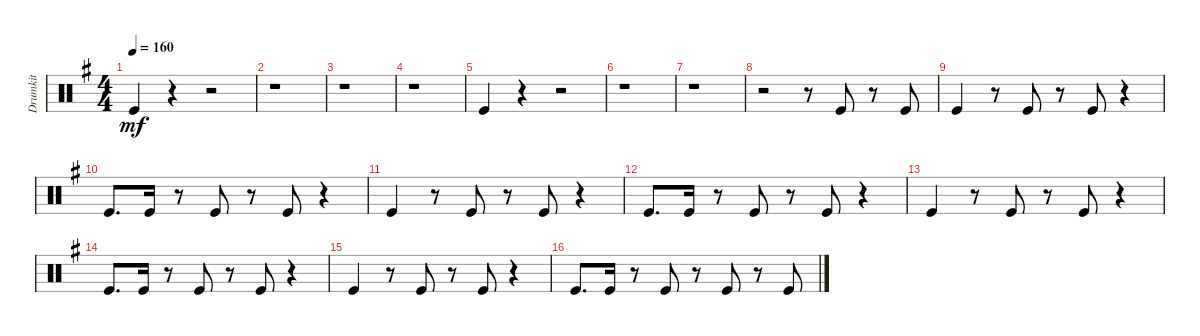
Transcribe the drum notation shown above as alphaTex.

\track ("Drumkit" "Drumkit") {instrument percussion}
\staff {score}
\articulation defaults
\ts (4 4)
\tempo 160
\clef neutral
\ks g "Kick (hit)".4{dy mf}
r.4 r.2 |
r.1 |
r.1 |
r.1 |
"Kick (hit)".4 r.4 r.2 |
r.1 |
r.1 |
r.2 r.8 "Kick (hit)".8 r.8 "Kick (hit)".8 |
"Kick (hit)".4 r.8 "Kick (hit)".8 r.8 "Kick (hit)".8 r.4 |
"Kick (hit)".8{d} "Kick (hit)".16 r.8 "Kick (hit)".8 r.8 "Kick (hit)".8 r.4 |
"Kick (hit)".4 r.8 "Kick (hit)".8 r.8 "Kick (hit)".8 r.4 |
"Kick (hit)".8{d} "Kick (hit)".16 r.8 "Kick (hit)".8 r.8 "Kick (hit)".8 r.4 |
"Kick (hit)".4 r.8 "Kick (hit)".8 r.8 "Kick (hit)".8 r.4 |
"Kick (hit)".8{d} "Kick (hit)".16 r.8 "Kick (hit)".8 r.8 "Kick (hit)".8 r.4 |
"Kick (hit)".4 r.8 "Kick (hit)".8 r.8 "Kick (hit)".8 r.4 |
"Kick (hit)".8{d} "Kick (hit)".16 r.8 "Kick (hit)".8 r.8 "Kick (hit)".8 r.8 "Kick (hit)".8
